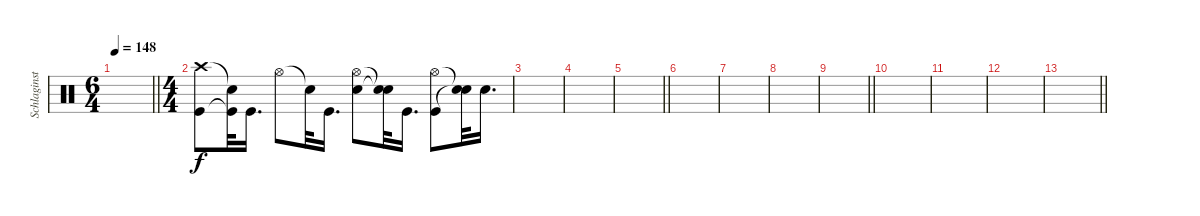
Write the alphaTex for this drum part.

\track ("Schlaginstrumente - Auswahl" "Schlaginst") {instrument percussion}
\staff {score}
\articulation defaults
\ts (6 4)
\tempo 148
\clef neutral
\barLineRight lightlight
\ks c
|
\ts (4 4)
\section ("" "")
("Crash high (hit)" "Kick (hit)").8 ("Snare (hit)"{t} "Kick (hit)"{t}).32 "Kick (hit)".16{d} "Hi-Hat (open)".8 "Snare (hit)"{t}.32 "Kick (hit)".16{d} ("Hi-Hat (open)" "Electric Snare (hit)").8 ("Snare (hit)"{t} "Snare (hit)"{t}).32 "Kick (hit)".16{d} ("Hi-Hat (open)" "Kick (hit)").8 ("Snare (hit)"{t} "Snare (hit)"{t}).32 "Electric Snare (hit)".16{d} |
|
|
\barLineRight lightlight
|
|
|
|
\barLineRight lightlight
|
|
|
|
\barLineRight lightlight
